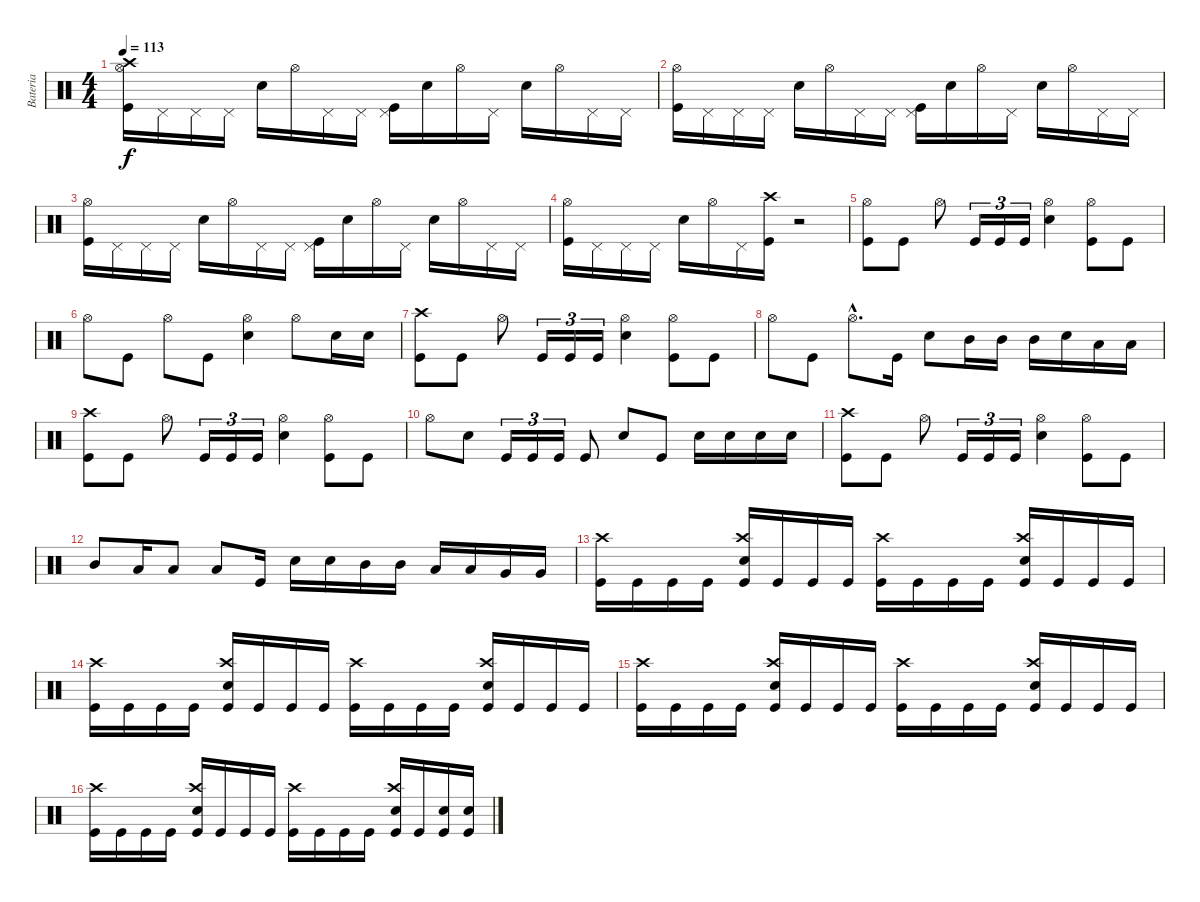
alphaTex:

\track ("Bateria" "Bateria") {instrument percussion}
\staff {score}
\articulation defaults
\ts (4 4)
\tempo 113
\clef neutral
\ks c
("Kick (hit)" "Crash high (hit)" "Hi-Hat (open)").16{dy f} "Pedal Hi-Hat (hit)".16 "Pedal Hi-Hat (hit)".16 "Pedal Hi-Hat (hit)".16 "Snare (hit) 2".16 "Hi-Hat (open)".16 "Pedal Hi-Hat (hit)".16 "Pedal Hi-Hat (hit)".16 ("Kick (hit)" "Pedal Hi-Hat (hit)").16 "Snare (hit) 2".16 "Hi-Hat (open)".16 "Pedal Hi-Hat (hit)".16 "Snare (hit) 2".16 "Hi-Hat (open)".16 "Pedal Hi-Hat (hit)".16 "Pedal Hi-Hat (hit)".16 |
("Kick (hit)" "Hi-Hat (open)").16 "Pedal Hi-Hat (hit)".16 "Pedal Hi-Hat (hit)".16 "Pedal Hi-Hat (hit)".16 "Snare (hit) 2".16 "Hi-Hat (open)".16 "Pedal Hi-Hat (hit)".16 "Pedal Hi-Hat (hit)".16 ("Kick (hit)" "Pedal Hi-Hat (hit)").16 "Snare (hit) 2".16 "Hi-Hat (open)".16 "Pedal Hi-Hat (hit)".16 "Snare (hit) 2".16 "Hi-Hat (open)".16 "Pedal Hi-Hat (hit)".16 "Pedal Hi-Hat (hit)".16 |
("Kick (hit)" "Hi-Hat (open)").16 "Pedal Hi-Hat (hit)".16 "Pedal Hi-Hat (hit)".16 "Pedal Hi-Hat (hit)".16 "Snare (hit) 2".16 "Hi-Hat (open)".16 "Pedal Hi-Hat (hit)".16 "Pedal Hi-Hat (hit)".16 ("Kick (hit)" "Pedal Hi-Hat (hit)").16 "Snare (hit) 2".16 "Hi-Hat (open)".16 "Pedal Hi-Hat (hit)".16 "Snare (hit) 2".16 "Hi-Hat (open)".16 "Pedal Hi-Hat (hit)".16 "Pedal Hi-Hat (hit)".16 |
("Kick (hit)" "Hi-Hat (open)").16 "Pedal Hi-Hat (hit)".16 "Pedal Hi-Hat (hit)".16 "Pedal Hi-Hat (hit)".16 "Snare (hit) 2".16 "Hi-Hat (open)".16 "Pedal Hi-Hat (hit)".16 ("Kick (hit)" "Crash high (hit)").16 r.2 |
("Kick (hit)" "Hi-Hat (open)").8 "Kick (hit)".8 "Hi-Hat (open)".8 "Kick (hit)".16{tu (3 2)} "Kick (hit)".16{tu (3 2)} "Kick (hit)".16{tu (3 2)} ("Hi-Hat (open)" "Snare (hit) 2").4 ("Kick (hit)" "Hi-Hat (open)").8 "Kick (hit)".8 |
"Hi-Hat (open)".8 "Kick (hit)".8 "Hi-Hat (open)".8 "Kick (hit)".8 ("Hi-Hat (open)" "Snare (hit) 2").4 "Hi-Hat (open)".8 "Snare (hit) 2".16 "Snare (hit) 2".16 |
("Kick (hit)" "Crash high (hit)").8 "Kick (hit)".8 "Hi-Hat (open)".8 "Kick (hit)".16{tu (3 2)} "Kick (hit)".16{tu (3 2)} "Kick (hit)".16{tu (3 2)} ("Hi-Hat (open)" "Snare (hit) 2").4 ("Kick (hit)" "Hi-Hat (open)").8 "Kick (hit)".8 |
"Hi-Hat (open)".8 "Kick (hit)".8 "Hi-Hat (open)"{hac}.8{d} "Kick (hit)".16 "Snare (hit) 2".8 "Mid Tom (hit)".16 "Mid Tom (hit)".16 "Mid Tom (hit)".16 "Snare (hit) 2".16 "Low Tom (hit)".16 "Low Tom (hit)".16 |
("Kick (hit)" "Crash high (hit)").8 "Kick (hit)".8 "Hi-Hat (open)".8 "Kick (hit)".16{tu (3 2)} "Kick (hit)".16{tu (3 2)} "Kick (hit)".16{tu (3 2)} ("Hi-Hat (open)" "Snare (hit) 2").4 ("Kick (hit)" "Hi-Hat (open)").8 "Kick (hit)".8 |
"Hi-Hat (open)".8 "Snare (hit) 2".8 "Kick (hit)".16{tu (3 2)} "Kick (hit)".16{tu (3 2)} "Kick (hit)".16{tu (3 2)} "Kick (hit)".8 "Snare (hit) 2".8 "Kick (hit)".8 "Snare (hit) 2".16 "Snare (hit) 2".16 "Snare (hit) 2".16 "Snare (hit) 2".16 |
("Kick (hit)" "Crash high (hit)").8 "Kick (hit)".8 "Hi-Hat (open)".8 "Kick (hit)".16{tu (3 2)} "Kick (hit)".16{tu (3 2)} "Kick (hit)".16{tu (3 2)} ("Hi-Hat (open)" "Snare (hit) 2").4 ("Kick (hit)" "Hi-Hat (open)").8 "Kick (hit)".8 |
"Mid Tom (hit)".8 "Low Tom (hit)".16 "Low Tom (hit)".8 "Low Tom (hit)".8 "Kick (hit)".16 "Snare (hit) 2".16 "Snare (hit) 2".16 "Mid Tom (hit)".16 "Mid Tom (hit)".16 "Low Tom (hit)".16 "Low Tom (hit)".16 "Very Low Tom (hit)".16 "Very Low Tom (hit)".16 |
("Kick (hit)" "Crash high (hit)").16 "Kick (hit)".16 "Kick (hit)".16 "Kick (hit)".16 ("Kick (hit)" "Crash high (hit)" "Snare (hit) 2").16 "Kick (hit)".16 "Kick (hit)".16 "Kick (hit)".16 ("Kick (hit)" "Crash high (hit)").16 "Kick (hit)".16 "Kick (hit)".16 "Kick (hit)".16 ("Kick (hit)" "Crash high (hit)" "Snare (hit) 2").16 "Kick (hit)".16 "Kick (hit)".16 "Kick (hit)".16 |
("Kick (hit)" "Crash high (hit)").16 "Kick (hit)".16 "Kick (hit)".16 "Kick (hit)".16 ("Kick (hit)" "Crash high (hit)" "Snare (hit) 2").16 "Kick (hit)".16 "Kick (hit)".16 "Kick (hit)".16 ("Kick (hit)" "Crash high (hit)").16 "Kick (hit)".16 "Kick (hit)".16 "Kick (hit)".16 ("Kick (hit)" "Crash high (hit)" "Snare (hit) 2").16 "Kick (hit)".16 "Kick (hit)".16 "Kick (hit)".16 |
("Kick (hit)" "Crash high (hit)").16 "Kick (hit)".16 "Kick (hit)".16 "Kick (hit)".16 ("Kick (hit)" "Crash high (hit)" "Snare (hit) 2").16 "Kick (hit)".16 "Kick (hit)".16 "Kick (hit)".16 ("Kick (hit)" "Crash high (hit)").16 "Kick (hit)".16 "Kick (hit)".16 "Kick (hit)".16 ("Kick (hit)" "Crash high (hit)" "Snare (hit) 2").16 "Kick (hit)".16 "Kick (hit)".16 "Kick (hit)".16 |
("Kick (hit)" "Crash high (hit)").16 "Kick (hit)".16 "Kick (hit)".16 "Kick (hit)".16 ("Kick (hit)" "Crash high (hit)" "Snare (hit) 2").16 "Kick (hit)".16 "Kick (hit)".16 "Kick (hit)".16 ("Kick (hit)" "Crash high (hit)").16 "Kick (hit)".16 "Kick (hit)".16 "Kick (hit)".16 ("Kick (hit)" "Crash high (hit)" "Snare (hit) 2").16 "Kick (hit)".16 ("Kick (hit)" "Snare (hit) 2").16 ("Kick (hit)" "Snare (hit) 2").16
